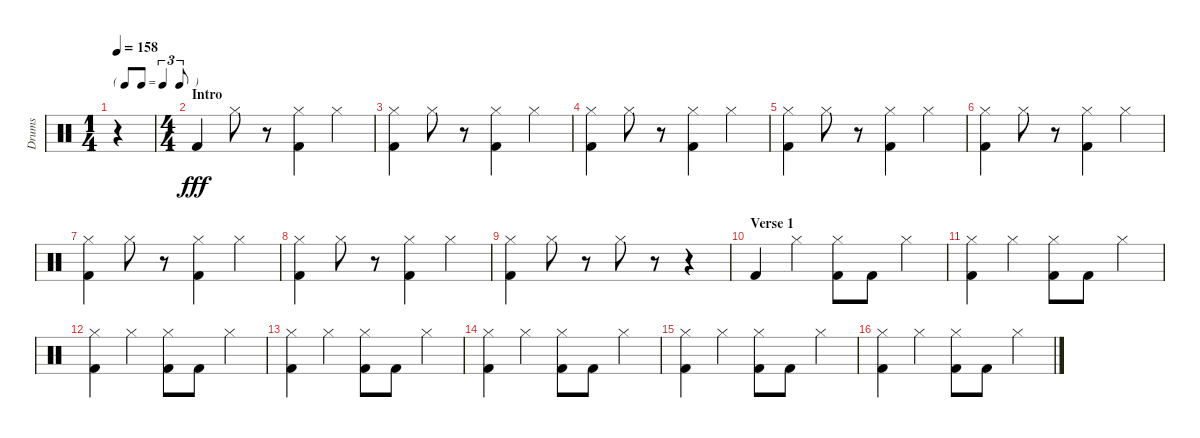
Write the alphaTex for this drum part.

\track ("Drums" "Drums") {instrument percussion}
\staff {score}
\articulation defaults
\ts (1 4)
\tf triplet8th
\tempo 158
\clef neutral
\ks c
r.4{dy fff} |
\ts (4 4)
\section ("" "Intro")
"Kick (hit) 2".4 "Hi-Hat (closed)".8 r.8 ("Hi-Hat (closed)" "Kick (hit) 2").4 "Hi-Hat (closed)".4 |
("Hi-Hat (closed)" "Kick (hit) 2").4 "Hi-Hat (closed)".8 r.8 ("Hi-Hat (closed)" "Kick (hit) 2").4 "Hi-Hat (closed)".4 |
("Hi-Hat (closed)" "Kick (hit) 2").4 "Hi-Hat (closed)".8 r.8 ("Hi-Hat (closed)" "Kick (hit) 2").4 "Hi-Hat (closed)".4 |
("Hi-Hat (closed)" "Kick (hit) 2").4 "Hi-Hat (closed)".8 r.8 ("Hi-Hat (closed)" "Kick (hit) 2").4 "Hi-Hat (closed)".4 |
("Hi-Hat (closed)" "Kick (hit) 2").4 "Hi-Hat (closed)".8 r.8 ("Hi-Hat (closed)" "Kick (hit) 2").4 "Hi-Hat (closed)".4 |
("Hi-Hat (closed)" "Kick (hit) 2").4 "Hi-Hat (closed)".8 r.8 ("Hi-Hat (closed)" "Kick (hit) 2").4 "Hi-Hat (closed)".4 |
("Hi-Hat (closed)" "Kick (hit) 2").4 "Hi-Hat (closed)".8 r.8 ("Hi-Hat (closed)" "Kick (hit) 2").4 "Hi-Hat (closed)".4 |
("Hi-Hat (closed)" "Kick (hit) 2").4 "Hi-Hat (closed)".8 r.8 "Hi-Hat (closed)".8 r.8 r.4 |
\section ("" "Verse 1")
"Kick (hit) 2".4 "Hi-Hat (closed)".4 ("Hi-Hat (closed)" "Kick (hit) 2").8 "Kick (hit) 2".8 "Hi-Hat (closed)".4 |
("Hi-Hat (closed)" "Kick (hit) 2").4 "Hi-Hat (closed)".4 ("Hi-Hat (closed)" "Kick (hit) 2").8 "Kick (hit) 2".8 "Hi-Hat (closed)".4 |
("Hi-Hat (closed)" "Kick (hit) 2").4 "Hi-Hat (closed)".4 ("Hi-Hat (closed)" "Kick (hit) 2").8 "Kick (hit) 2".8 "Hi-Hat (closed)".4 |
("Hi-Hat (closed)" "Kick (hit) 2").4 "Hi-Hat (closed)".4 ("Hi-Hat (closed)" "Kick (hit) 2").8 "Kick (hit) 2".8 "Hi-Hat (closed)".4 |
("Hi-Hat (closed)" "Kick (hit) 2").4 "Hi-Hat (closed)".4 ("Hi-Hat (closed)" "Kick (hit) 2").8 "Kick (hit) 2".8 "Hi-Hat (closed)".4 |
("Hi-Hat (closed)" "Kick (hit) 2").4 "Hi-Hat (closed)".4 ("Hi-Hat (closed)" "Kick (hit) 2").8 "Kick (hit) 2".8 "Hi-Hat (closed)".4 |
("Hi-Hat (closed)" "Kick (hit) 2").4 "Hi-Hat (closed)".4 ("Hi-Hat (closed)" "Kick (hit) 2").8 "Kick (hit) 2".8 "Hi-Hat (closed)".4
